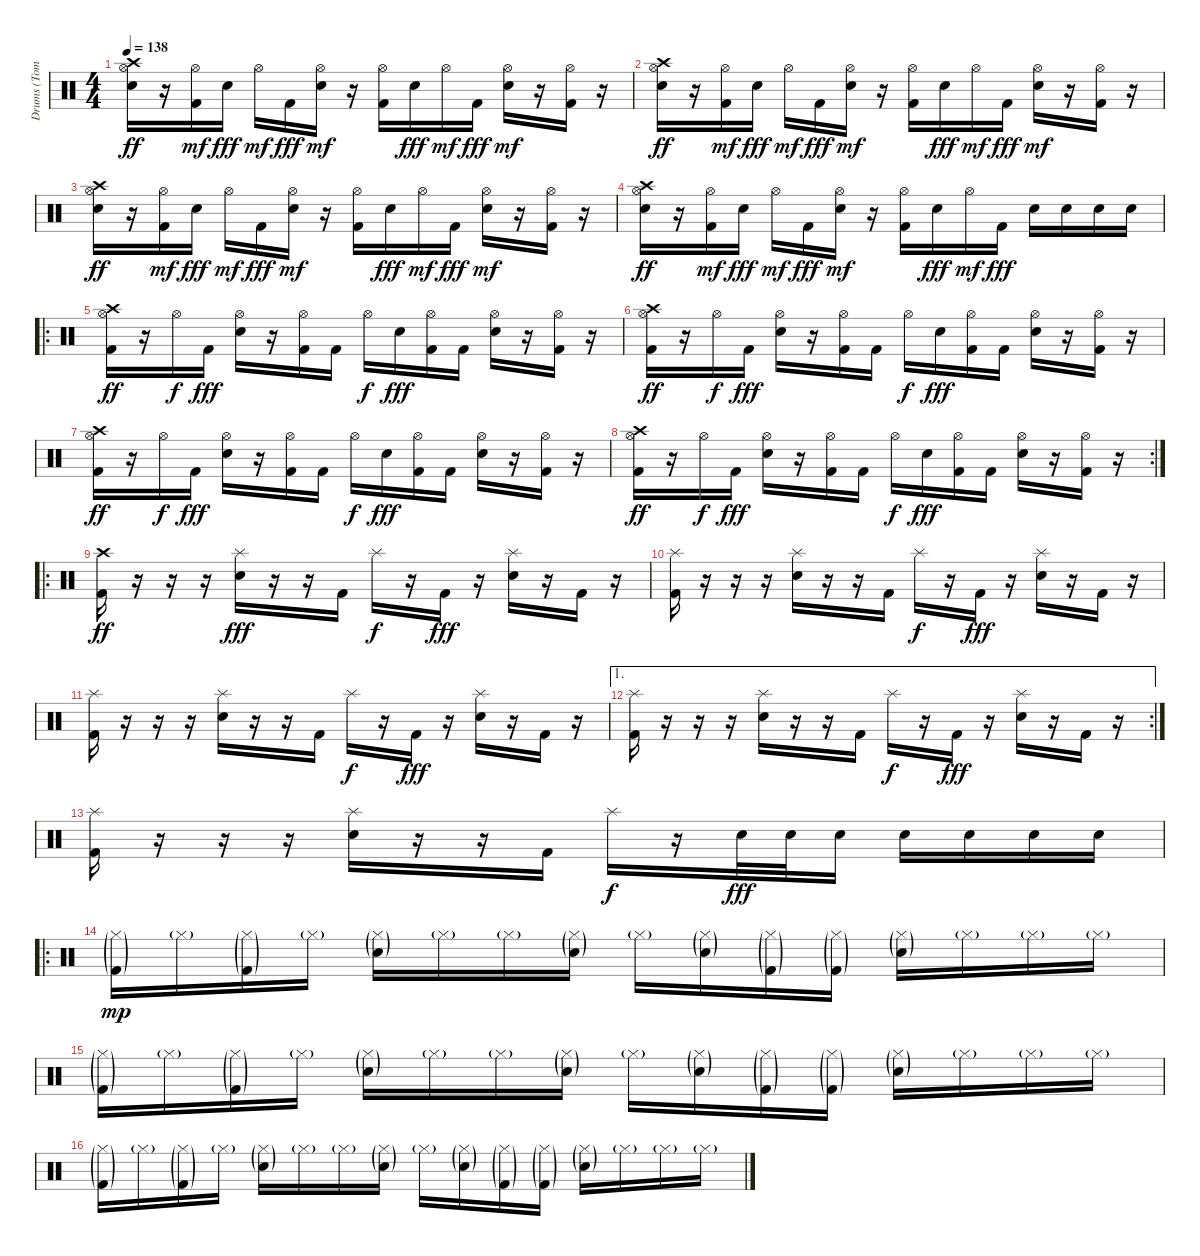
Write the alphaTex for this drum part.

\track ("Drums (Tommy Decker)" "Drums (Tom") {instrument percussion}
\staff {score}
\articulation defaults
\ts (4 4)
\tempo 138
\clef neutral
\ks c
("Snare (hit) 2" "Hi-Hat (open)" "Crash high (hit)").16{dy ff} r.16 ("Kick (hit) 2" "Hi-Hat (open)").16{dy mf} "Snare (hit) 2".16{dy fff} "Hi-Hat (open)".16{dy mf} "Kick (hit) 2".16{dy fff} ("Snare (hit) 2" "Hi-Hat (open)").16{dy mf} r.16 ("Kick (hit) 2" "Hi-Hat (open)").16 "Snare (hit) 2".16{dy fff} "Hi-Hat (open)".16{dy mf} "Kick (hit) 2".16{dy fff} ("Snare (hit) 2" "Hi-Hat (open)").16{dy mf} r.16 ("Kick (hit) 2" "Hi-Hat (open)").16 r.16 |
("Snare (hit) 2" "Hi-Hat (open)" "Crash high (hit)").16{dy ff} r.16 ("Kick (hit) 2" "Hi-Hat (open)").16{dy mf} "Snare (hit) 2".16{dy fff} "Hi-Hat (open)".16{dy mf} "Kick (hit) 2".16{dy fff} ("Snare (hit) 2" "Hi-Hat (open)").16{dy mf} r.16 ("Kick (hit) 2" "Hi-Hat (open)").16 "Snare (hit) 2".16{dy fff} "Hi-Hat (open)".16{dy mf} "Kick (hit) 2".16{dy fff} ("Snare (hit) 2" "Hi-Hat (open)").16{dy mf} r.16 ("Kick (hit) 2" "Hi-Hat (open)").16 r.16 |
("Snare (hit) 2" "Hi-Hat (open)" "Crash high (hit)").16{dy ff} r.16 ("Kick (hit) 2" "Hi-Hat (open)").16{dy mf} "Snare (hit) 2".16{dy fff} "Hi-Hat (open)".16{dy mf} "Kick (hit) 2".16{dy fff} ("Snare (hit) 2" "Hi-Hat (open)").16{dy mf} r.16 ("Kick (hit) 2" "Hi-Hat (open)").16 "Snare (hit) 2".16{dy fff} "Hi-Hat (open)".16{dy mf} "Kick (hit) 2".16{dy fff} ("Snare (hit) 2" "Hi-Hat (open)").16{dy mf} r.16 ("Kick (hit) 2" "Hi-Hat (open)").16 r.16 |
("Snare (hit) 2" "Hi-Hat (open)" "Crash high (hit)").16{dy ff} r.16 ("Kick (hit) 2" "Hi-Hat (open)").16{dy mf} "Snare (hit) 2".16{dy fff} "Hi-Hat (open)".16{dy mf} "Kick (hit) 2".16{dy fff} ("Snare (hit) 2" "Hi-Hat (open)").16{dy mf} r.16 ("Kick (hit) 2" "Hi-Hat (open)").16 "Snare (hit) 2".16{dy fff} "Hi-Hat (open)".16{dy mf} "Kick (hit) 2".16{dy fff} "Snare (hit) 2".16 "Snare (hit) 2".16 "Snare (hit) 2".16 "Snare (hit) 2".16 |
\ro
("Kick (hit) 2" "Hi-Hat (open)" "Crash high (hit)").16{dy ff} r.16 "Hi-Hat (open)".16{dy f} "Kick (hit) 2".16{dy fff} ("Snare (hit) 2" "Hi-Hat (open)").16 r.16 ("Kick (hit) 2" "Hi-Hat (open)").16 "Kick (hit) 2".16 "Hi-Hat (open)".16{dy f} "Snare (hit) 2".16{dy fff} ("Kick (hit) 2" "Hi-Hat (open)").16 "Kick (hit) 2".16 ("Snare (hit) 2" "Hi-Hat (open)").16 r.16 ("Kick (hit) 2" "Hi-Hat (open)").16 r.16 |
("Kick (hit) 2" "Hi-Hat (open)" "Crash high (hit)").16{dy ff} r.16 "Hi-Hat (open)".16{dy f} "Kick (hit) 2".16{dy fff} ("Snare (hit) 2" "Hi-Hat (open)").16 r.16 ("Kick (hit) 2" "Hi-Hat (open)").16 "Kick (hit) 2".16 "Hi-Hat (open)".16{dy f} "Snare (hit) 2".16{dy fff} ("Kick (hit) 2" "Hi-Hat (open)").16 "Kick (hit) 2".16 ("Snare (hit) 2" "Hi-Hat (open)").16 r.16 ("Kick (hit) 2" "Hi-Hat (open)").16 r.16 |
("Kick (hit) 2" "Hi-Hat (open)" "Crash high (hit)").16{dy ff} r.16 "Hi-Hat (open)".16{dy f} "Kick (hit) 2".16{dy fff} ("Snare (hit) 2" "Hi-Hat (open)").16 r.16 ("Kick (hit) 2" "Hi-Hat (open)").16 "Kick (hit) 2".16 "Hi-Hat (open)".16{dy f} "Snare (hit) 2".16{dy fff} ("Kick (hit) 2" "Hi-Hat (open)").16 "Kick (hit) 2".16 ("Snare (hit) 2" "Hi-Hat (open)").16 r.16 ("Kick (hit) 2" "Hi-Hat (open)").16 r.16 |
\rc 2
("Kick (hit) 2" "Hi-Hat (open)" "Crash high (hit)").16{dy ff} r.16 "Hi-Hat (open)".16{dy f} "Kick (hit) 2".16{dy fff} ("Snare (hit) 2" "Hi-Hat (open)").16 r.16 ("Kick (hit) 2" "Hi-Hat (open)").16 "Kick (hit) 2".16 "Hi-Hat (open)".16{dy f} "Snare (hit) 2".16{dy fff} ("Kick (hit) 2" "Hi-Hat (open)").16 "Kick (hit) 2".16 ("Snare (hit) 2" "Hi-Hat (open)").16 r.16 ("Kick (hit) 2" "Hi-Hat (open)").16 r.16 |
\ro
("Kick (hit) 2" "Crash high (hit)").16{dy ff} r.16 r.16 r.16 ("Snare (hit) 2" "Splash (hit)").16{dy fff} r.16 r.16 "Kick (hit) 2".16 "Splash (hit)".16{dy f} r.16 "Kick (hit) 2".16{dy fff} r.16 ("Snare (hit) 2" "Splash (hit)").16 r.16 "Kick (hit) 2".16 r.16 |
("Kick (hit) 2" "Splash (hit)").16 r.16 r.16 r.16 ("Snare (hit) 2" "Splash (hit)").16 r.16 r.16 "Kick (hit) 2".16 "Splash (hit)".16{dy f} r.16 "Kick (hit) 2".16{dy fff} r.16 ("Snare (hit) 2" "Splash (hit)").16 r.16 "Kick (hit) 2".16 r.16 |
("Kick (hit) 2" "Splash (hit)").16 r.16 r.16 r.16 ("Snare (hit) 2" "Splash (hit)").16 r.16 r.16 "Kick (hit) 2".16 "Splash (hit)".16{dy f} r.16 "Kick (hit) 2".16{dy fff} r.16 ("Snare (hit) 2" "Splash (hit)").16 r.16 "Kick (hit) 2".16 r.16 |
\ae 1
\rc 2
("Kick (hit) 2" "Splash (hit)").16 r.16 r.16 r.16 ("Snare (hit) 2" "Splash (hit)").16 r.16 r.16 "Kick (hit) 2".16 "Splash (hit)".16{dy f} r.16 "Kick (hit) 2".16{dy fff} r.16 ("Snare (hit) 2" "Splash (hit)").16 r.16 "Kick (hit) 2".16 r.16 |
("Kick (hit) 2" "Splash (hit)").16 r.16 r.16 r.16 ("Snare (hit) 2" "Splash (hit)").16 r.16 r.16 "Kick (hit) 2".16 "Splash (hit)".16{dy f} r.16 "Snare (hit) 2".32{dy fff} "Snare (hit) 2".32 "Snare (hit) 2".16 "Snare (hit) 2".16 "Snare (hit) 2".16 "Snare (hit) 2".16 "Snare (hit) 2".16 |
\ro
("Kick (hit) 2"{g} "Hi-Hat (closed)"{g}).16{dy mp} "Hi-Hat (closed)"{g}.16 ("Kick (hit) 2"{g} "Hi-Hat (closed)"{g}).16 "Hi-Hat (closed)"{g}.16 ("Electric Snare (hit)"{g} "Hi-Hat (closed)"{g}).16 "Hi-Hat (closed)"{g}.16 "Hi-Hat (closed)"{g}.16 ("Electric Snare (hit)"{g} "Hi-Hat (closed)"{g}).16 "Hi-Hat (closed)"{g}.16 ("Electric Snare (hit)"{g} "Hi-Hat (closed)"{g}).16 ("Kick (hit) 2"{g} "Hi-Hat (closed)"{g}).16 ("Kick (hit) 2"{g} "Hi-Hat (closed)"{g}).16 ("Electric Snare (hit)"{g} "Hi-Hat (closed)"{g}).16 "Hi-Hat (closed)"{g}.16 "Hi-Hat (closed)"{g}.16 "Hi-Hat (closed)"{g}.16 |
("Kick (hit) 2"{g} "Hi-Hat (closed)"{g}).16 "Hi-Hat (closed)"{g}.16 ("Kick (hit) 2"{g} "Hi-Hat (closed)"{g}).16 "Hi-Hat (closed)"{g}.16 ("Electric Snare (hit)"{g} "Hi-Hat (closed)"{g}).16 "Hi-Hat (closed)"{g}.16 "Hi-Hat (closed)"{g}.16 ("Electric Snare (hit)"{g} "Hi-Hat (closed)"{g}).16 "Hi-Hat (closed)"{g}.16 ("Electric Snare (hit)"{g} "Hi-Hat (closed)"{g}).16 ("Kick (hit) 2"{g} "Hi-Hat (closed)"{g}).16 ("Kick (hit) 2"{g} "Hi-Hat (closed)"{g}).16 ("Electric Snare (hit)"{g} "Hi-Hat (closed)"{g}).16 "Hi-Hat (closed)"{g}.16 "Hi-Hat (closed)"{g}.16 "Hi-Hat (closed)"{g}.16 |
("Kick (hit) 2"{g} "Hi-Hat (closed)"{g}).16 "Hi-Hat (closed)"{g}.16 ("Kick (hit) 2"{g} "Hi-Hat (closed)"{g}).16 "Hi-Hat (closed)"{g}.16 ("Electric Snare (hit)"{g} "Hi-Hat (closed)"{g}).16 "Hi-Hat (closed)"{g}.16 "Hi-Hat (closed)"{g}.16 ("Electric Snare (hit)"{g} "Hi-Hat (closed)"{g}).16 "Hi-Hat (closed)"{g}.16 ("Electric Snare (hit)"{g} "Hi-Hat (closed)"{g}).16 ("Kick (hit) 2"{g} "Hi-Hat (closed)"{g}).16 ("Kick (hit) 2"{g} "Hi-Hat (closed)"{g}).16 ("Electric Snare (hit)"{g} "Hi-Hat (closed)"{g}).16 "Hi-Hat (closed)"{g}.16 "Hi-Hat (closed)"{g}.16 "Hi-Hat (closed)"{g}.16
